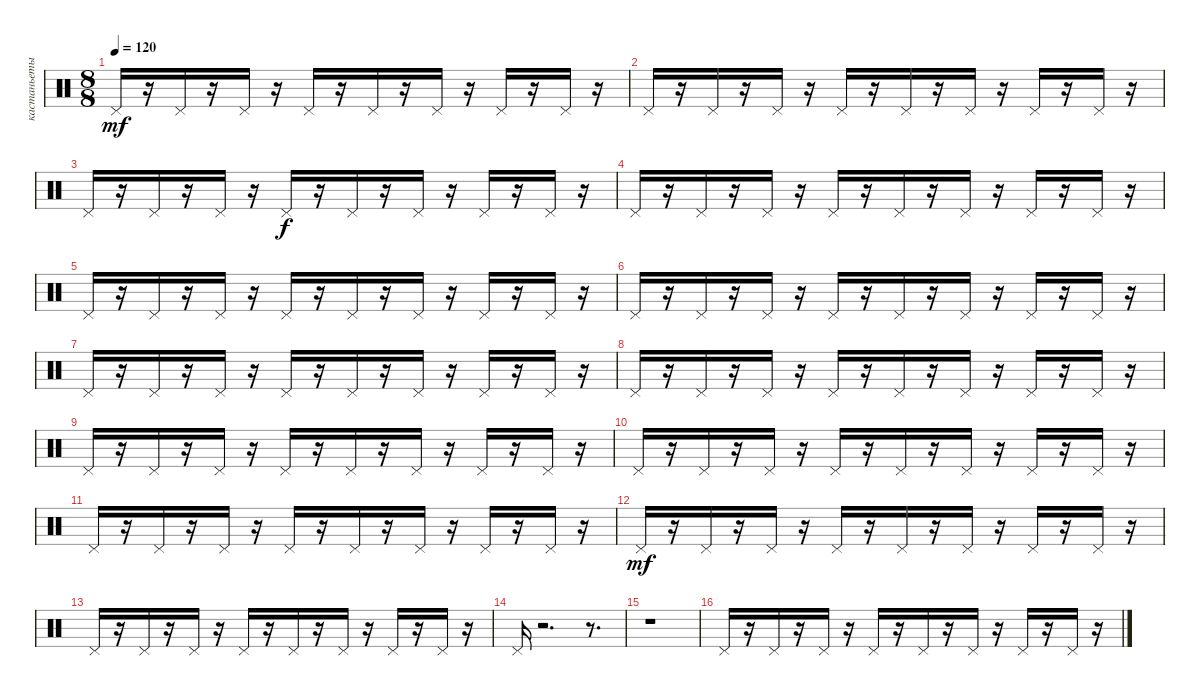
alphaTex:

\track ("кастаньеты" "кастаньеты") {instrument percussion}
\staff {score}
\articulation defaults
\ts (8 8)
\tempo 120
\clef neutral
\ks c "Pedal Hi-Hat (hit)".16{dy mf}
r.16 "Pedal Hi-Hat (hit)".16 r.16 "Pedal Hi-Hat (hit)".16 r.16 "Pedal Hi-Hat (hit)".16 r.16 "Pedal Hi-Hat (hit)".16 r.16 "Pedal Hi-Hat (hit)".16 r.16 "Pedal Hi-Hat (hit)".16 r.16 "Pedal Hi-Hat (hit)".16 r.16 |
"Pedal Hi-Hat (hit)".16 r.16 "Pedal Hi-Hat (hit)".16 r.16 "Pedal Hi-Hat (hit)".16 r.16 "Pedal Hi-Hat (hit)".16 r.16 "Pedal Hi-Hat (hit)".16 r.16 "Pedal Hi-Hat (hit)".16 r.16 "Pedal Hi-Hat (hit)".16 r.16 "Pedal Hi-Hat (hit)".16 r.16 |
"Pedal Hi-Hat (hit)".16 r.16 "Pedal Hi-Hat (hit)".16 r.16 "Pedal Hi-Hat (hit)".16 r.16 "Pedal Hi-Hat (hit)".16{dy f} r.16 "Pedal Hi-Hat (hit)".16 r.16 "Pedal Hi-Hat (hit)".16 r.16 "Pedal Hi-Hat (hit)".16 r.16 "Pedal Hi-Hat (hit)".16 r.16 |
"Pedal Hi-Hat (hit)".16 r.16 "Pedal Hi-Hat (hit)".16 r.16 "Pedal Hi-Hat (hit)".16 r.16 "Pedal Hi-Hat (hit)".16 r.16 "Pedal Hi-Hat (hit)".16 r.16 "Pedal Hi-Hat (hit)".16 r.16 "Pedal Hi-Hat (hit)".16 r.16 "Pedal Hi-Hat (hit)".16 r.16 |
"Pedal Hi-Hat (hit)".16 r.16 "Pedal Hi-Hat (hit)".16 r.16 "Pedal Hi-Hat (hit)".16 r.16 "Pedal Hi-Hat (hit)".16 r.16 "Pedal Hi-Hat (hit)".16 r.16 "Pedal Hi-Hat (hit)".16 r.16 "Pedal Hi-Hat (hit)".16 r.16 "Pedal Hi-Hat (hit)".16 r.16 |
"Pedal Hi-Hat (hit)".16 r.16 "Pedal Hi-Hat (hit)".16 r.16 "Pedal Hi-Hat (hit)".16 r.16 "Pedal Hi-Hat (hit)".16 r.16 "Pedal Hi-Hat (hit)".16 r.16 "Pedal Hi-Hat (hit)".16 r.16 "Pedal Hi-Hat (hit)".16 r.16 "Pedal Hi-Hat (hit)".16 r.16 |
"Pedal Hi-Hat (hit)".16 r.16 "Pedal Hi-Hat (hit)".16 r.16 "Pedal Hi-Hat (hit)".16 r.16 "Pedal Hi-Hat (hit)".16 r.16 "Pedal Hi-Hat (hit)".16 r.16 "Pedal Hi-Hat (hit)".16 r.16 "Pedal Hi-Hat (hit)".16 r.16 "Pedal Hi-Hat (hit)".16 r.16 |
"Pedal Hi-Hat (hit)".16 r.16 "Pedal Hi-Hat (hit)".16 r.16 "Pedal Hi-Hat (hit)".16 r.16 "Pedal Hi-Hat (hit)".16 r.16 "Pedal Hi-Hat (hit)".16 r.16 "Pedal Hi-Hat (hit)".16 r.16 "Pedal Hi-Hat (hit)".16 r.16 "Pedal Hi-Hat (hit)".16 r.16 |
"Pedal Hi-Hat (hit)".16 r.16 "Pedal Hi-Hat (hit)".16 r.16 "Pedal Hi-Hat (hit)".16 r.16 "Pedal Hi-Hat (hit)".16 r.16 "Pedal Hi-Hat (hit)".16 r.16 "Pedal Hi-Hat (hit)".16 r.16 "Pedal Hi-Hat (hit)".16 r.16 "Pedal Hi-Hat (hit)".16 r.16 |
"Pedal Hi-Hat (hit)".16 r.16 "Pedal Hi-Hat (hit)".16 r.16 "Pedal Hi-Hat (hit)".16 r.16 "Pedal Hi-Hat (hit)".16 r.16 "Pedal Hi-Hat (hit)".16 r.16 "Pedal Hi-Hat (hit)".16 r.16 "Pedal Hi-Hat (hit)".16 r.16 "Pedal Hi-Hat (hit)".16 r.16 |
"Pedal Hi-Hat (hit)".16 r.16 "Pedal Hi-Hat (hit)".16 r.16 "Pedal Hi-Hat (hit)".16 r.16 "Pedal Hi-Hat (hit)".16 r.16 "Pedal Hi-Hat (hit)".16 r.16 "Pedal Hi-Hat (hit)".16 r.16 "Pedal Hi-Hat (hit)".16 r.16 "Pedal Hi-Hat (hit)".16 r.16 |
"Pedal Hi-Hat (hit)".16{dy mf} r.16 "Pedal Hi-Hat (hit)".16 r.16 "Pedal Hi-Hat (hit)".16 r.16 "Pedal Hi-Hat (hit)".16 r.16 "Pedal Hi-Hat (hit)".16 r.16 "Pedal Hi-Hat (hit)".16 r.16 "Pedal Hi-Hat (hit)".16 r.16 "Pedal Hi-Hat (hit)".16 r.16 |
"Pedal Hi-Hat (hit)".16 r.16 "Pedal Hi-Hat (hit)".16 r.16 "Pedal Hi-Hat (hit)".16 r.16 "Pedal Hi-Hat (hit)".16 r.16 "Pedal Hi-Hat (hit)".16 r.16 "Pedal Hi-Hat (hit)".16 r.16 "Pedal Hi-Hat (hit)".16 r.16 "Pedal Hi-Hat (hit)".16 r.16 |
"Pedal Hi-Hat (hit)".16 r.2{d} r.8{d} |
r.1 |
"Pedal Hi-Hat (hit)".16 r.16 "Pedal Hi-Hat (hit)".16 r.16 "Pedal Hi-Hat (hit)".16 r.16 "Pedal Hi-Hat (hit)".16 r.16 "Pedal Hi-Hat (hit)".16 r.16 "Pedal Hi-Hat (hit)".16 r.16 "Pedal Hi-Hat (hit)".16 r.16 "Pedal Hi-Hat (hit)".16 r.16
